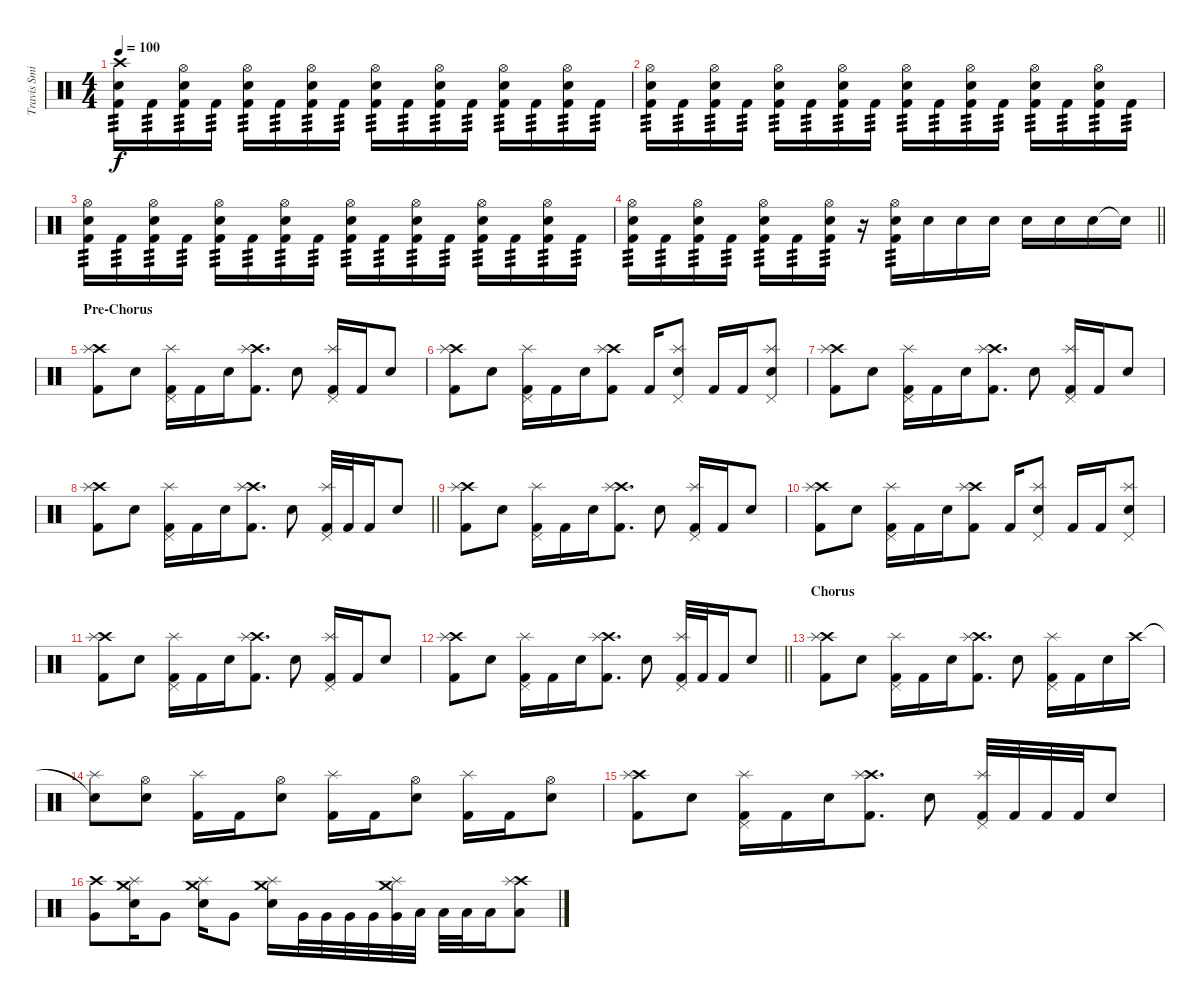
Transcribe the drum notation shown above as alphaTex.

\track ("Travis Smith" "Travis Smi") {instrument percussion}
\staff {score}
\articulation defaults
\ts (4 4)
\tempo 100
\clef neutral
\ks c
("Crash high (hit)" "Snare (hit) 2" "Kick (hit) 2").16{tp 3 dy f} "Kick (hit) 2".16{tp 3} ("Hi-Hat (open)" "Snare (hit) 2" "Kick (hit) 2").16{tp 3} "Kick (hit) 2".16{tp 3} ("Hi-Hat (open)" "Snare (hit) 2" "Kick (hit) 2").16{tp 3} "Kick (hit) 2".16{tp 3} ("Hi-Hat (open)" "Snare (hit) 2" "Kick (hit) 2").16{tp 3} "Kick (hit) 2".16{tp 3} ("Hi-Hat (open)" "Snare (hit) 2" "Kick (hit) 2").16{tp 3} "Kick (hit) 2".16{tp 3} ("Hi-Hat (open)" "Snare (hit) 2" "Kick (hit) 2").16{tp 3} "Kick (hit) 2".16{tp 3} ("Hi-Hat (open)" "Snare (hit) 2" "Kick (hit) 2").16{tp 3} "Kick (hit) 2".16{tp 3} ("Hi-Hat (open)" "Snare (hit) 2" "Kick (hit) 2").16{tp 3} "Kick (hit) 2".16{tp 3} |
("Hi-Hat (open)" "Snare (hit) 2" "Kick (hit) 2").16{tp 3} "Kick (hit) 2".16{tp 3} ("Hi-Hat (open)" "Snare (hit) 2" "Kick (hit) 2").16{tp 3} "Kick (hit) 2".16{tp 3} ("Hi-Hat (open)" "Snare (hit) 2" "Kick (hit) 2").16{tp 3} "Kick (hit) 2".16{tp 3} ("Hi-Hat (open)" "Snare (hit) 2" "Kick (hit) 2").16{tp 3} "Kick (hit) 2".16{tp 3} ("Hi-Hat (open)" "Snare (hit) 2" "Kick (hit) 2").16{tp 3} "Kick (hit) 2".16{tp 3} ("Hi-Hat (open)" "Snare (hit) 2" "Kick (hit) 2").16{tp 3} "Kick (hit) 2".16{tp 3} ("Hi-Hat (open)" "Snare (hit) 2" "Kick (hit) 2").16{tp 3} "Kick (hit) 2".16{tp 3} ("Hi-Hat (open)" "Snare (hit) 2" "Kick (hit) 2").16{tp 3} "Kick (hit) 2".16{tp 3} |
("Hi-Hat (open)" "Snare (hit) 2" "Kick (hit) 2").16{tp 3} "Kick (hit) 2".16{tp 3} ("Hi-Hat (open)" "Snare (hit) 2" "Kick (hit) 2").16{tp 3} "Kick (hit) 2".16{tp 3} ("Hi-Hat (open)" "Snare (hit) 2" "Kick (hit) 2").16{tp 3} "Kick (hit) 2".16{tp 3} ("Hi-Hat (open)" "Snare (hit) 2" "Kick (hit) 2").16{tp 3} "Kick (hit) 2".16{tp 3} ("Hi-Hat (open)" "Snare (hit) 2" "Kick (hit) 2").16{tp 3} "Kick (hit) 2".16{tp 3} ("Hi-Hat (open)" "Snare (hit) 2" "Kick (hit) 2").16{tp 3} "Kick (hit) 2".16{tp 3} ("Hi-Hat (open)" "Snare (hit) 2" "Kick (hit) 2").16{tp 3} "Kick (hit) 2".16{tp 3} ("Hi-Hat (open)" "Snare (hit) 2" "Kick (hit) 2").16{tp 3} "Kick (hit) 2".16{tp 3} |
\barLineRight lightlight
("Hi-Hat (open)" "Snare (hit) 2" "Kick (hit) 2").16{tp 3} "Kick (hit) 2".16{tp 3} ("Hi-Hat (open)" "Snare (hit) 2" "Kick (hit) 2").16{tp 3} "Kick (hit) 2".16{tp 3} ("Hi-Hat (open)" "Snare (hit) 2" "Kick (hit) 2").16{tp 3} "Kick (hit) 2".16{tp 3} ("Hi-Hat (open)" "Snare (hit) 2" "Kick (hit) 2").16{tp 3} r.16 ("Hi-Hat (open)" "Snare (hit) 2" "Kick (hit) 2").16{tp 3} "Snare (hit) 2".16 "Snare (hit) 2".16 "Snare (hit) 2".16 "Snare (hit) 2".16 "Snare (hit) 2".16 "Snare (hit) 2".16 "Snare (hit) 2"{t}.16 |
\section ("" "Pre-Chorus")
("Crash high (hit)" "Splash (hit)" "Kick (hit) 2").8 "Snare (hit) 2".8 ("Pedal Hi-Hat (hit)" "Splash (hit)" "Kick (hit) 2").16 "Kick (hit) 2".16 "Snare (hit) 2".16 ("Crash high (hit)" "Splash (hit)" "Kick (hit) 2").8{d} "Snare (hit) 2".8 ("Pedal Hi-Hat (hit)" "Splash (hit)" "Kick (hit) 2").16 "Kick (hit) 2".16 "Snare (hit) 2".8 |
("Crash high (hit)" "Splash (hit)" "Kick (hit) 2").8 "Snare (hit) 2".8 ("Pedal Hi-Hat (hit)" "Splash (hit)" "Kick (hit) 2").16 "Kick (hit) 2".16 "Snare (hit) 2".16 ("Crash high (hit)" "Splash (hit)" "Kick (hit) 2").8 "Kick (hit) 2".16 ("Pedal Hi-Hat (hit)" "Splash (hit)" "Snare (hit) 2").8 "Kick (hit) 2".16 "Kick (hit) 2".16 ("Pedal Hi-Hat (hit)" "Splash (hit)" "Snare (hit) 2").8 |
("Crash high (hit)" "Splash (hit)" "Kick (hit) 2").8 "Snare (hit) 2".8 ("Pedal Hi-Hat (hit)" "Splash (hit)" "Kick (hit) 2").16 "Kick (hit) 2".16 "Snare (hit) 2".16 ("Crash high (hit)" "Splash (hit)" "Kick (hit) 2").8{d} "Snare (hit) 2".8 ("Pedal Hi-Hat (hit)" "Splash (hit)" "Kick (hit) 2").16 "Kick (hit) 2".16 "Snare (hit) 2".8 |
\barLineRight lightlight
("Crash high (hit)" "Splash (hit)" "Kick (hit) 2").8 "Snare (hit) 2".8 ("Pedal Hi-Hat (hit)" "Splash (hit)" "Kick (hit) 2").16 "Kick (hit) 2".16 "Snare (hit) 2".16 ("Crash high (hit)" "Splash (hit)" "Kick (hit) 2").8{d} "Snare (hit) 2".8 ("Pedal Hi-Hat (hit)" "Splash (hit)" "Kick (hit) 2").32 "Kick (hit) 2".32 "Kick (hit) 2".16 "Snare (hit) 2".8 |
("Crash high (hit)" "Splash (hit)" "Kick (hit) 2").8 "Snare (hit) 2".8 ("Pedal Hi-Hat (hit)" "Splash (hit)" "Kick (hit) 2").16 "Kick (hit) 2".16 "Snare (hit) 2".16 ("Crash high (hit)" "Splash (hit)" "Kick (hit) 2").8{d} "Snare (hit) 2".8 ("Pedal Hi-Hat (hit)" "Splash (hit)" "Kick (hit) 2").16 "Kick (hit) 2".16 "Snare (hit) 2".8 |
("Crash high (hit)" "Splash (hit)" "Kick (hit) 2").8 "Snare (hit) 2".8 ("Pedal Hi-Hat (hit)" "Splash (hit)" "Kick (hit) 2").16 "Kick (hit) 2".16 "Snare (hit) 2".16 ("Crash high (hit)" "Splash (hit)" "Kick (hit) 2").8 "Kick (hit) 2".16 ("Pedal Hi-Hat (hit)" "Splash (hit)" "Snare (hit) 2").8 "Kick (hit) 2".16 "Kick (hit) 2".16 ("Pedal Hi-Hat (hit)" "Splash (hit)" "Snare (hit) 2").8 |
("Crash high (hit)" "Splash (hit)" "Kick (hit) 2").8 "Snare (hit) 2".8 ("Pedal Hi-Hat (hit)" "Splash (hit)" "Kick (hit) 2").16 "Kick (hit) 2".16 "Snare (hit) 2".16 ("Crash high (hit)" "Splash (hit)" "Kick (hit) 2").8{d} "Snare (hit) 2".8 ("Pedal Hi-Hat (hit)" "Splash (hit)" "Kick (hit) 2").16 "Kick (hit) 2".16 "Snare (hit) 2".8 |
\barLineRight lightlight
("Crash high (hit)" "Splash (hit)" "Kick (hit) 2").8 "Snare (hit) 2".8 ("Pedal Hi-Hat (hit)" "Splash (hit)" "Kick (hit) 2").16 "Kick (hit) 2".16 "Snare (hit) 2".16 ("Crash high (hit)" "Splash (hit)" "Kick (hit) 2").8{d} "Snare (hit) 2".8 ("Pedal Hi-Hat (hit)" "Splash (hit)" "Kick (hit) 2").32 "Kick (hit) 2".32 "Kick (hit) 2".16 "Snare (hit) 2".8 |
\section ("" "Chorus")
("Crash high (hit)" "Splash (hit)" "Kick (hit) 2").8 "Snare (hit) 2".8 ("Pedal Hi-Hat (hit)" "Splash (hit)" "Kick (hit) 2").16 "Kick (hit) 2".16 "Snare (hit) 2".16 ("Crash high (hit)" "Splash (hit)" "Kick (hit) 2").8{d} "Snare (hit) 2".8 ("Pedal Hi-Hat (hit)" "Splash (hit)" "Kick (hit) 2").16 "Kick (hit) 2".16 "Snare (hit) 2".16 "Crash high (hit)".16 |
("Snare (hit)"{t} "Splash (hit)").8 ("Hi-Hat (open)" "Snare (hit) 2").8 ("Splash (hit)" "Kick (hit) 2").16 "Kick (hit) 2".16 ("Hi-Hat (open)" "Snare (hit) 2").8 ("Splash (hit)" "Kick (hit) 2").16 "Kick (hit) 2".16 ("Hi-Hat (open)" "Snare (hit) 2").8 ("Splash (hit)" "Kick (hit) 2").16 "Kick (hit) 2".16 ("Hi-Hat (open)" "Snare (hit) 2").8 |
("Crash high (hit)" "Splash (hit)" "Kick (hit) 2").8 "Snare (hit) 2".8 ("Pedal Hi-Hat (hit)" "Splash (hit)" "Kick (hit) 2").16 "Kick (hit) 2".16 "Snare (hit) 2".16 ("Crash high (hit)" "Splash (hit)" "Kick (hit) 2").8{d} "Snare (hit) 2".8 ("Pedal Hi-Hat (hit)" "Splash (hit)" "Kick (hit) 2").32 "Kick (hit) 2".32 "Kick (hit) 2".32 "Kick (hit) 2".32 "Snare (hit) 2".8 |
("Crash high (hit)" "Very Low Tom (hit)").8 ("Crash medium (hit)" "Splash (hit)" "Snare (hit) 2").16 "Very Low Tom (hit)".8 ("Crash medium (hit)" "Splash (hit)" "Snare (hit) 2").16 "Very Low Tom (hit)".8 ("Crash medium (hit)" "Splash (hit)" "Snare (hit) 2").16 "Very Low Tom (hit)".32 "Very Low Tom (hit)".32 "Very Low Tom (hit)".32 "Very Low Tom (hit)".32 ("Crash medium (hit)" "Splash (hit)" "Very Low Tom (hit)").32 "Low Tom (hit)".32 "Low Tom (hit)".32 "Low Tom (hit)".32 "Low Tom (hit)".16 ("Crash high (hit)" "Splash (hit)" "Low Tom (hit)").8
